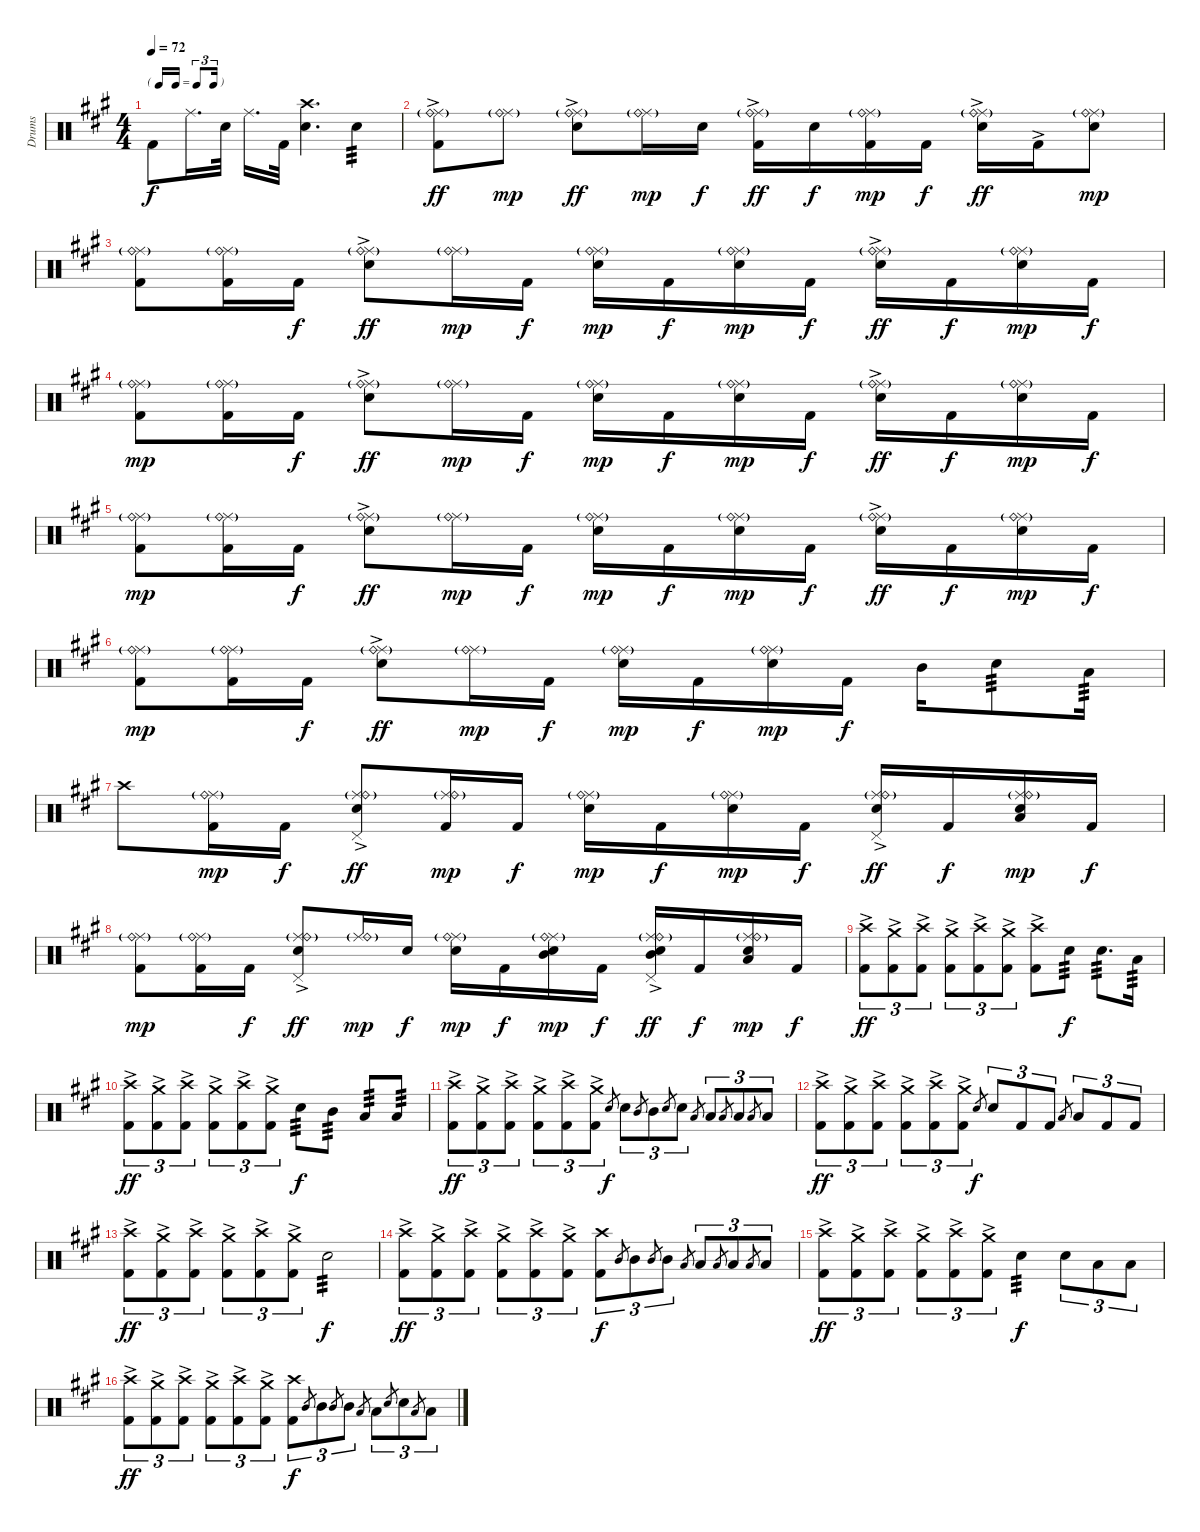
\track ("Drums" "Drums") {instrument percussion}
\staff {score}
\articulation defaults
\ts (4 4)
\tf triplet16th
\tempo 72
\clef neutral
\ks a "Kick (hit) 2".8{dy f} "Ride (middle)".16{d} "Snare (hit) 2".32 "Ride (middle)".16{d} "Kick (hit) 2".32
("Crash high (hit)" "Snare (hit) 2").4{d} "Snare (hit) 2".4{tp 3} |
("Ride (middle)" "Ride (bell)"{g} "Kick (hit) 2"{ac}).8{dy ff} ("Ride (middle)"{g} "Ride (bell)"{g}).8{dy mp} ("Ride (middle)" "Ride (bell)"{g} "Snare (hit) 2"{ac}).8{dy ff} ("Ride (middle)"{g} "Ride (bell)"{g}).16{dy mp} "Snare (hit) 2".16{dy f} ("Ride (middle)" "Ride (bell)"{g} "Kick (hit) 2"{ac}).16{dy ff} "Snare (hit) 2".16{dy f} ("Ride (middle)"{g} "Ride (bell)"{g} "Kick (hit) 2").16{dy mp} "Kick (hit) 2".16{dy f} ("Ride (middle)" "Ride (bell)"{g} "Snare (hit) 2"{ac}).16{dy ff} "Kick (hit) 2"{ac}.16 ("Ride (middle)" "Ride (bell)"{g} "Snare (hit) 2").8{dy mp} |
("Ride (middle)" "Ride (bell)"{g} "Kick (hit) 2").8 ("Ride (middle)"{g} "Ride (bell)"{g} "Kick (hit) 2").16 "Kick (hit) 2".16{dy f} ("Ride (middle)" "Ride (bell)"{g} "Snare (hit) 2"{ac}).8{dy ff} ("Ride (middle)"{g} "Ride (bell)"{g}).16{dy mp} "Kick (hit) 2".16{dy f} ("Ride (middle)" "Ride (bell)"{g} "Snare (hit) 2").16{dy mp} "Kick (hit) 2".16{dy f} ("Ride (middle)"{g} "Ride (bell)"{g} "Snare (hit) 2").16{dy mp} "Kick (hit) 2".16{dy f} ("Ride (middle)" "Ride (bell)"{g} "Snare (hit) 2"{ac}).16{dy ff} "Kick (hit) 2".16{dy f} ("Ride (middle)"{g} "Ride (bell)"{g} "Snare (hit) 2").16{dy mp} "Kick (hit) 2".16{dy f} |
("Ride (middle)" "Ride (bell)"{g} "Kick (hit) 2").8{dy mp} ("Ride (middle)"{g} "Ride (bell)"{g} "Kick (hit) 2").16 "Kick (hit) 2".16{dy f} ("Ride (middle)" "Ride (bell)"{g} "Snare (hit) 2"{ac}).8{dy ff} ("Ride (middle)"{g} "Ride (bell)"{g}).16{dy mp} "Kick (hit) 2".16{dy f} ("Ride (middle)" "Ride (bell)"{g} "Snare (hit) 2").16{dy mp} "Kick (hit) 2".16{dy f} ("Ride (middle)"{g} "Ride (bell)"{g} "Snare (hit) 2").16{dy mp} "Kick (hit) 2".16{dy f} ("Ride (middle)" "Ride (bell)"{g} "Snare (hit) 2"{ac}).16{dy ff} "Kick (hit) 2".16{dy f} ("Ride (middle)"{g} "Ride (bell)"{g} "Snare (hit) 2").16{dy mp} "Kick (hit) 2".16{dy f} |
("Ride (middle)" "Ride (bell)"{g} "Kick (hit) 2").8{dy mp} ("Ride (middle)"{g} "Ride (bell)"{g} "Kick (hit) 2").16 "Kick (hit) 2".16{dy f} ("Ride (middle)" "Ride (bell)"{g} "Snare (hit) 2"{ac}).8{dy ff} ("Ride (middle)"{g} "Ride (bell)"{g}).16{dy mp} "Kick (hit) 2".16{dy f} ("Ride (middle)" "Ride (bell)"{g} "Snare (hit) 2").16{dy mp} "Kick (hit) 2".16{dy f} ("Ride (middle)"{g} "Ride (bell)"{g} "Snare (hit) 2").16{dy mp} "Kick (hit) 2".16{dy f} ("Ride (middle)" "Ride (bell)"{g} "Snare (hit) 2"{ac}).16{dy ff} "Kick (hit) 2".16{dy f} ("Ride (middle)"{g} "Ride (bell)"{g} "Snare (hit) 2").16{dy mp} "Kick (hit) 2".16{dy f} |
("Ride (middle)" "Ride (bell)"{g} "Kick (hit) 2").8{dy mp} ("Ride (middle)"{g} "Ride (bell)"{g} "Kick (hit) 2").16 "Kick (hit) 2".16{dy f} ("Ride (middle)" "Ride (bell)"{g} "Snare (hit) 2"{ac}).8{dy ff} ("Ride (middle)"{g} "Ride (bell)"{g}).16{dy mp} "Kick (hit) 2".16{dy f} ("Ride (middle)" "Ride (bell)"{g} "Snare (hit) 2").16{dy mp} "Kick (hit) 2".16{dy f} ("Ride (middle)"{g} "Ride (bell)"{g} "Snare (hit) 2").16{dy mp} "Kick (hit) 2".16{dy f} "Mid Tom (hit)".16 "Snare (hit) 2".8{tp 3} "Low Tom (hit)".16{tp 3} |
"Crash high (hit)".8 ("Ride (middle)"{g} "Ride (bell)"{g} "Kick (hit) 2").16{dy mp} "Kick (hit) 2".16{dy f} ("Ride (middle)" "Ride (bell)"{g} "Snare (hit) 2"{ac} "Pedal Hi-Hat (hit)").8{dy ff} ("Ride (middle)"{g} "Ride (bell)"{g} "Kick (hit) 2").16{dy mp} "Kick (hit) 2".16{dy f} ("Ride (middle)" "Ride (bell)"{g} "Snare (hit) 2").16{dy mp} "Kick (hit) 2".16{dy f} ("Ride (middle)"{g} "Ride (bell)"{g} "Snare (hit) 2").16{dy mp} "Kick (hit) 2".16{dy f} ("Ride (middle)" "Ride (bell)"{g} "Snare (hit) 2"{ac} "Pedal Hi-Hat (hit)").16{dy ff} "Kick (hit) 2".16{dy f} ("Ride (middle)"{g} "Ride (bell)"{g} "Snare (hit) 2" "Low Tom (hit)").16{dy mp} "Kick (hit) 2".16{dy f} |
("Ride (middle)" "Ride (bell)"{g} "Kick (hit) 2").8{dy mp} ("Ride (middle)"{g} "Ride (bell)"{g} "Kick (hit) 2").16 "Kick (hit) 2".16{dy f} ("Ride (middle)" "Ride (bell)"{g} "Snare (hit) 2"{ac} "Pedal Hi-Hat (hit)").8{dy ff} ("Ride (middle)"{g} "Ride (bell)"{g}).16{dy mp} "Snare (hit) 2".16{dy f} ("Ride (middle)" "Ride (bell)"{g} "Snare (hit) 2").16{dy mp} "Kick (hit) 2".16{dy f} ("Ride (middle)"{g} "Ride (bell)"{g} "Snare (hit) 2" "Mid Tom (hit)").16{dy mp} "Kick (hit) 2".16{dy f} ("Ride (middle)" "Ride (bell)"{g} "Snare (hit) 2"{ac} "Mid Tom (hit)" "Pedal Hi-Hat (hit)").16{dy ff} "Kick (hit) 2".16{dy f} ("Ride (middle)"{g} "Ride (bell)"{g} "Snare (hit) 2" "Low Tom (hit)").16{dy mp} "Kick (hit) 2".16{dy f} |
("Crash high (hit)" "Kick (hit) 2"{ac}).8{tu (3 2) dy ff} ("Crash medium (hit)" "Kick (hit) 2"{ac}).8{tu (3 2)} ("Crash high (hit)" "Kick (hit) 2"{ac}).8{tu (3 2)} ("Crash medium (hit)" "Kick (hit) 2"{ac}).8{tu (3 2)} ("Crash high (hit)" "Kick (hit) 2"{ac}).8{tu (3 2)} ("Crash medium (hit)" "Kick (hit) 2"{ac}).8{tu (3 2)} ("Crash high (hit)" "Kick (hit) 2"{ac}).8 "Snare (hit) 2".8{tp 3 dy f} "Snare (hit) 2".8{d tp 3} "Low Tom (hit)".16{tp 3} |
("Crash high (hit)" "Kick (hit) 2"{ac}).8{tu (3 2) dy ff} ("Crash medium (hit)" "Kick (hit) 2"{ac}).8{tu (3 2)} ("Crash high (hit)" "Kick (hit) 2"{ac}).8{tu (3 2)} ("Crash medium (hit)" "Kick (hit) 2"{ac}).8{tu (3 2)} ("Crash high (hit)" "Kick (hit) 2"{ac}).8{tu (3 2)} ("Crash medium (hit)" "Kick (hit) 2"{ac}).8{tu (3 2)} "Snare (hit) 2".8{tp 3 dy f} "Mid Tom (hit)".8{tp 3} "Low Tom (hit)".8{tp 3} "Low Floor Tom (hit)".8{tp 3} |
("Crash high (hit)" "Kick (hit) 2"{ac}).8{tu (3 2) dy ff} ("Crash medium (hit)" "Kick (hit) 2"{ac}).8{tu (3 2)} ("Crash high (hit)" "Kick (hit) 2"{ac}).8{tu (3 2)} ("Crash medium (hit)" "Kick (hit) 2"{ac}).8{tu (3 2)} ("Crash high (hit)" "Kick (hit) 2"{ac}).8{tu (3 2)} ("Crash medium (hit)" "Kick (hit) 2"{ac}).8{tu (3 2)} "Snare (hit) 2".8{gr dy f} "Snare (hit) 2".8{tu (3 2)} "Mid Tom (hit)".8{gr} "Mid Tom (hit)".8{tu (3 2)} "Snare (hit) 2".8{gr} "Snare (hit) 2".8{tu (3 2)} "Low Tom (hit)".8{gr} "Low Tom (hit)".8{tu (3 2)} "Low Floor Tom (hit)".8{gr} "Low Floor Tom (hit)".8{tu (3 2)} "Low Floor Tom (hit)".8{gr} "Low Floor Tom (hit)".8{tu (3 2)} |
("Crash high (hit)" "Kick (hit) 2"{ac}).8{tu (3 2) dy ff} ("Crash medium (hit)" "Kick (hit) 2"{ac}).8{tu (3 2)} ("Crash high (hit)" "Kick (hit) 2"{ac}).8{tu (3 2)} ("Crash medium (hit)" "Kick (hit) 2"{ac}).8{tu (3 2)} ("Crash high (hit)" "Kick (hit) 2"{ac}).8{tu (3 2)} ("Crash medium (hit)" "Kick (hit) 2"{ac}).8{tu (3 2)} "Snare (hit) 2".8{gr dy f} "Snare (hit) 2".8{tu (3 2)} "Kick (hit) 2".8{tu (3 2)} "Kick (hit) 2".8{tu (3 2)} "Low Tom (hit)".8{gr} "Low Tom (hit)".8{tu (3 2)} "Kick (hit) 2".8{tu (3 2)} "Kick (hit) 2".8{tu (3 2)} |
("Crash high (hit)" "Kick (hit) 2"{ac}).8{tu (3 2) dy ff} ("Crash medium (hit)" "Kick (hit) 2"{ac}).8{tu (3 2)} ("Crash high (hit)" "Kick (hit) 2"{ac}).8{tu (3 2)} ("Crash medium (hit)" "Kick (hit) 2"{ac}).8{tu (3 2)} ("Crash high (hit)" "Kick (hit) 2"{ac}).8{tu (3 2)} ("Crash medium (hit)" "Kick (hit) 2"{ac}).8{tu (3 2)} "Snare (hit) 2".2{tp 3 dy f} |
("Crash high (hit)" "Kick (hit) 2"{ac}).8{tu (3 2) dy ff} ("Crash medium (hit)" "Kick (hit) 2"{ac}).8{tu (3 2)} ("Crash high (hit)" "Kick (hit) 2"{ac}).8{tu (3 2)} ("Crash medium (hit)" "Kick (hit) 2"{ac}).8{tu (3 2)} ("Crash high (hit)" "Kick (hit) 2"{ac}).8{tu (3 2)} ("Crash medium (hit)" "Kick (hit) 2"{ac}).8{tu (3 2)} ("Crash high (hit)" "Kick (hit) 2").8{tu (3 2) dy f} "Mid Tom (hit)".8{gr} "Mid Tom (hit)".8{tu (3 2)} "Mid Tom (hit)".8{gr} "Mid Tom (hit)".8{tu (3 2)} "Low Tom (hit)".8{gr} "Low Tom (hit)".8{tu (3 2)} "Low Tom (hit)".8{gr} "Low Tom (hit)".8{tu (3 2)} "Low Tom (hit)".8{gr} "Low Tom (hit)".8{tu (3 2)} |
("Crash high (hit)" "Kick (hit) 2"{ac}).8{tu (3 2) dy ff} ("Crash medium (hit)" "Kick (hit) 2"{ac}).8{tu (3 2)} ("Crash high (hit)" "Kick (hit) 2"{ac}).8{tu (3 2)} ("Crash medium (hit)" "Kick (hit) 2"{ac}).8{tu (3 2)} ("Crash high (hit)" "Kick (hit) 2"{ac}).8{tu (3 2)} ("Crash medium (hit)" "Kick (hit) 2"{ac}).8{tu (3 2)} "Snare (hit) 2".4{tp 3 dy f} "Snare (hit) 2".8{tu (3 2)} "Low Tom (hit)".8{tu (3 2)} "Low Tom (hit)".8{tu (3 2)} |
("Crash high (hit)" "Kick (hit) 2"{ac}).8{tu (3 2) dy ff} ("Crash medium (hit)" "Kick (hit) 2"{ac}).8{tu (3 2)} ("Crash high (hit)" "Kick (hit) 2"{ac}).8{tu (3 2)} ("Crash medium (hit)" "Kick (hit) 2"{ac}).8{tu (3 2)} ("Crash high (hit)" "Kick (hit) 2"{ac}).8{tu (3 2)} ("Crash medium (hit)" "Kick (hit) 2"{ac}).8{tu (3 2)} ("Crash high (hit)" "Kick (hit) 2").8{tu (3 2) dy f} "Mid Tom (hit)".8{gr} "Mid Tom (hit)".8{tu (3 2)} "Mid Tom (hit)".8{gr} "Mid Tom (hit)".8{tu (3 2)} "Low Tom (hit)".8{gr} "Low Tom (hit)".8{tu (3 2)} "Snare (hit) 2".8{gr} "Snare (hit) 2".8{tu (3 2)} "Low Tom (hit)".8{gr} "Low Tom (hit)".8{tu (3 2)}
